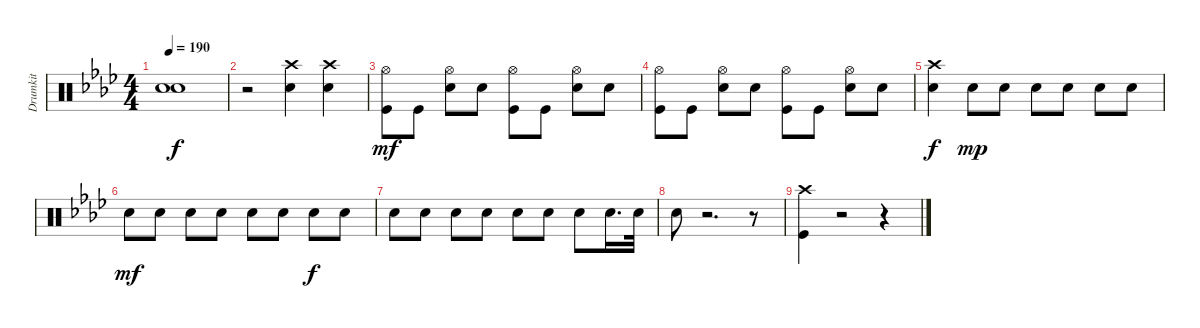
\track ("Drumkit" "Drumkit") {instrument percussion}
\staff {score}
\articulation defaults
\ts (4 4)
\tempo 190
\clef neutral
\ks fminor
("Snare (hit)"{t} "Snare (hit)"{t}).1{dy f} |
r.2 ("Snare (hit) 2" "Crash high (hit)").4 ("Snare (hit) 2" "Crash high (hit)").4 |
("Kick (hit)" "Hi-Hat (open)").8{dy mf} "Kick (hit)".8 ("Snare (hit) 2" "Hi-Hat (open)").8 "Snare (hit) 2".8 ("Kick (hit)" "Hi-Hat (open)").8 "Kick (hit)".8 ("Snare (hit) 2" "Hi-Hat (open)").8 "Snare (hit) 2".8 |
("Kick (hit)" "Hi-Hat (open)").8 "Kick (hit)".8 ("Snare (hit) 2" "Hi-Hat (open)").8 "Snare (hit) 2".8 ("Kick (hit)" "Hi-Hat (open)").8 "Kick (hit)".8 ("Snare (hit) 2" "Hi-Hat (open)").8 "Snare (hit) 2".8 |
("Snare (hit) 2" "Crash high (hit)").4{dy f} "Snare (hit) 2".8{dy mp} "Snare (hit) 2".8 "Snare (hit) 2".8 "Snare (hit) 2".8 "Snare (hit) 2".8 "Snare (hit) 2".8 |
"Snare (hit) 2".8{dy mf} "Snare (hit) 2".8 "Snare (hit) 2".8 "Snare (hit) 2".8 "Snare (hit) 2".8 "Snare (hit) 2".8 "Snare (hit) 2".8{dy f} "Snare (hit) 2".8 |
"Snare (hit) 2".8 "Snare (hit) 2".8 "Snare (hit) 2".8 "Snare (hit) 2".8 "Snare (hit) 2".8 "Snare (hit) 2".8 "Snare (hit) 2".8 "Snare (hit) 2".16{d} "Snare (hit) 2".32 |
"Snare (hit) 2".8 r.2{d} r.8 |
("Crash high (hit)" "Kick (hit)").4 r.2 r.4
